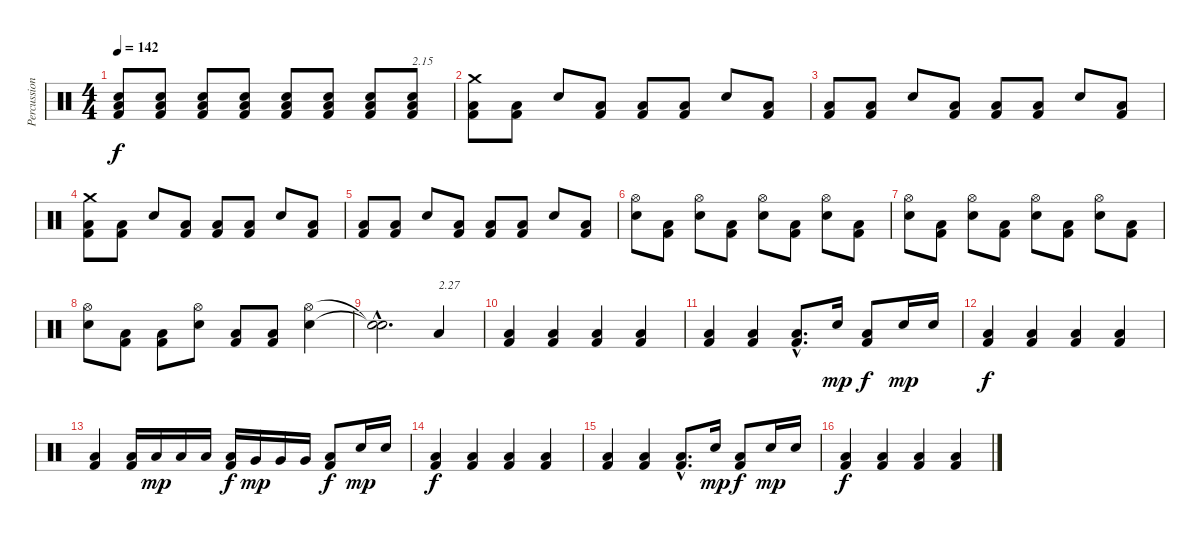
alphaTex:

\track ("Percussions" "Percussion") {instrument percussion}
\staff {score}
\articulation defaults
\ts (4 4)
\tempo 142
\clef neutral
\ks c
("Kick (hit) 2" "Low Floor Tom (hit)" "Electric Snare (hit)").8{dy f} ("Kick (hit) 2" "Low Floor Tom (hit)" "Electric Snare (hit)").8 ("Kick (hit) 2" "Low Floor Tom (hit)" "Electric Snare (hit)").8 ("Kick (hit) 2" "Low Floor Tom (hit)" "Electric Snare (hit)").8 ("Kick (hit) 2" "Low Floor Tom (hit)" "Electric Snare (hit)").8 ("Kick (hit) 2" "Low Floor Tom (hit)" "Electric Snare (hit)").8 ("Kick (hit) 2" "Low Floor Tom (hit)" "Electric Snare (hit)").8 ("Kick (hit) 2" "Low Floor Tom (hit)" "Electric Snare (hit)").8{txt "2.15"} |
("Kick (hit) 2" "Low Floor Tom (hit)" "Crash medium (hit)").8 ("Kick (hit) 2" "Low Floor Tom (hit)").8 "Electric Snare (hit)".8 ("Kick (hit) 2" "Low Floor Tom (hit)").8 ("Kick (hit) 2" "Low Floor Tom (hit)").8 ("Kick (hit) 2" "Low Floor Tom (hit)").8 "Electric Snare (hit)".8 ("Kick (hit) 2" "Low Floor Tom (hit)").8 |
("Kick (hit) 2" "Low Floor Tom (hit)").8 ("Kick (hit) 2" "Low Floor Tom (hit)").8 "Electric Snare (hit)".8 ("Kick (hit) 2" "Low Floor Tom (hit)").8 ("Kick (hit) 2" "Low Floor Tom (hit)").8 ("Kick (hit) 2" "Low Floor Tom (hit)").8 "Electric Snare (hit)".8 ("Kick (hit) 2" "Low Floor Tom (hit)").8 |
("Kick (hit) 2" "Low Floor Tom (hit)" "Crash medium (hit)").8 ("Kick (hit) 2" "Low Floor Tom (hit)").8 "Electric Snare (hit)".8 ("Kick (hit) 2" "Low Floor Tom (hit)").8 ("Kick (hit) 2" "Low Floor Tom (hit)").8 ("Kick (hit) 2" "Low Floor Tom (hit)").8 "Electric Snare (hit)".8 ("Kick (hit) 2" "Low Floor Tom (hit)").8 |
("Kick (hit) 2" "Low Floor Tom (hit)").8 ("Kick (hit) 2" "Low Floor Tom (hit)").8 "Electric Snare (hit)".8 ("Kick (hit) 2" "Low Floor Tom (hit)").8 ("Kick (hit) 2" "Low Floor Tom (hit)").8 ("Kick (hit) 2" "Low Floor Tom (hit)").8 "Electric Snare (hit)".8 ("Kick (hit) 2" "Low Floor Tom (hit)").8 |
("Electric Snare (hit)" "Hi-Hat (open)").8 ("Kick (hit) 2" "Low Floor Tom (hit)").8 ("Electric Snare (hit)" "Hi-Hat (open)").8 ("Kick (hit) 2" "Low Floor Tom (hit)").8 ("Electric Snare (hit)" "Hi-Hat (open)").8 ("Kick (hit) 2" "Low Floor Tom (hit)").8 ("Electric Snare (hit)" "Hi-Hat (open)").8 ("Kick (hit) 2" "Low Floor Tom (hit)").8 |
("Electric Snare (hit)" "Hi-Hat (open)").8 ("Kick (hit) 2" "Low Floor Tom (hit)").8 ("Electric Snare (hit)" "Hi-Hat (open)").8 ("Kick (hit) 2" "Low Floor Tom (hit)").8 ("Electric Snare (hit)" "Hi-Hat (open)").8 ("Kick (hit) 2" "Low Floor Tom (hit)").8 ("Electric Snare (hit)" "Hi-Hat (open)").8 ("Kick (hit) 2" "Low Floor Tom (hit)").8 |
("Electric Snare (hit)" "Hi-Hat (open)").8 ("Kick (hit) 2" "Low Floor Tom (hit)").8 ("Kick (hit) 2" "Low Floor Tom (hit)").8 ("Electric Snare (hit)" "Hi-Hat (open)").8 ("Kick (hit) 2" "Low Floor Tom (hit)").8 ("Kick (hit) 2" "Low Floor Tom (hit)").8 ("Electric Snare (hit)" "Hi-Hat (open)").4 |
("Snare (hit)"{hac t} "Snare (hit)"{hac t}).2{d} "Low Tom (hit)".4{txt "2.27"} |
("Kick (hit) 2" "Low Floor Tom (hit)").4 ("Kick (hit) 2" "Low Floor Tom (hit)").4 ("Kick (hit) 2" "Low Floor Tom (hit)").4 ("Kick (hit) 2" "Low Floor Tom (hit)").4 |
("Kick (hit) 2" "Low Floor Tom (hit)").4 ("Kick (hit) 2" "Low Floor Tom (hit)").4 ("Kick (hit) 2"{hac} "Low Floor Tom (hit)"{hac}).8{d} "Electric Snare (hit)".16{dy mp} ("Kick (hit) 2" "Low Floor Tom (hit)").8{dy f} "Electric Snare (hit)".16{dy mp} "Electric Snare (hit)".16 |
("Kick (hit) 2" "Low Floor Tom (hit)").4{dy f} ("Kick (hit) 2" "Low Floor Tom (hit)").4 ("Kick (hit) 2" "Low Floor Tom (hit)").4 ("Kick (hit) 2" "Low Floor Tom (hit)").4 |
("Kick (hit) 2" "Low Floor Tom (hit)").4 ("Kick (hit) 2" "Low Floor Tom (hit)").16 "Low Tom (hit)".16{dy mp} "Low Tom (hit)".16 "Low Tom (hit)".16 ("Kick (hit) 2" "Low Floor Tom (hit)").16{dy f} "Very Low Tom (hit)".16{dy mp} "Very Low Tom (hit)".16 "Very Low Tom (hit)".16 ("Kick (hit) 2" "Low Floor Tom (hit)").8{dy f} "Electric Snare (hit)".16{dy mp} "Electric Snare (hit)".16 |
("Kick (hit) 2" "Low Floor Tom (hit)").4{dy f} ("Kick (hit) 2" "Low Floor Tom (hit)").4 ("Kick (hit) 2" "Low Floor Tom (hit)").4 ("Kick (hit) 2" "Low Floor Tom (hit)").4 |
("Kick (hit) 2" "Low Floor Tom (hit)").4 ("Kick (hit) 2" "Low Floor Tom (hit)").4 ("Kick (hit) 2"{hac} "Low Floor Tom (hit)"{hac}).8{d} "Electric Snare (hit)".16{dy mp} ("Kick (hit) 2" "Low Floor Tom (hit)").8{dy f} "Electric Snare (hit)".16{dy mp} "Electric Snare (hit)".16 |
("Kick (hit) 2" "Low Floor Tom (hit)").4{dy f} ("Kick (hit) 2" "Low Floor Tom (hit)").4 ("Kick (hit) 2" "Low Floor Tom (hit)").4 ("Kick (hit) 2" "Low Floor Tom (hit)").4
